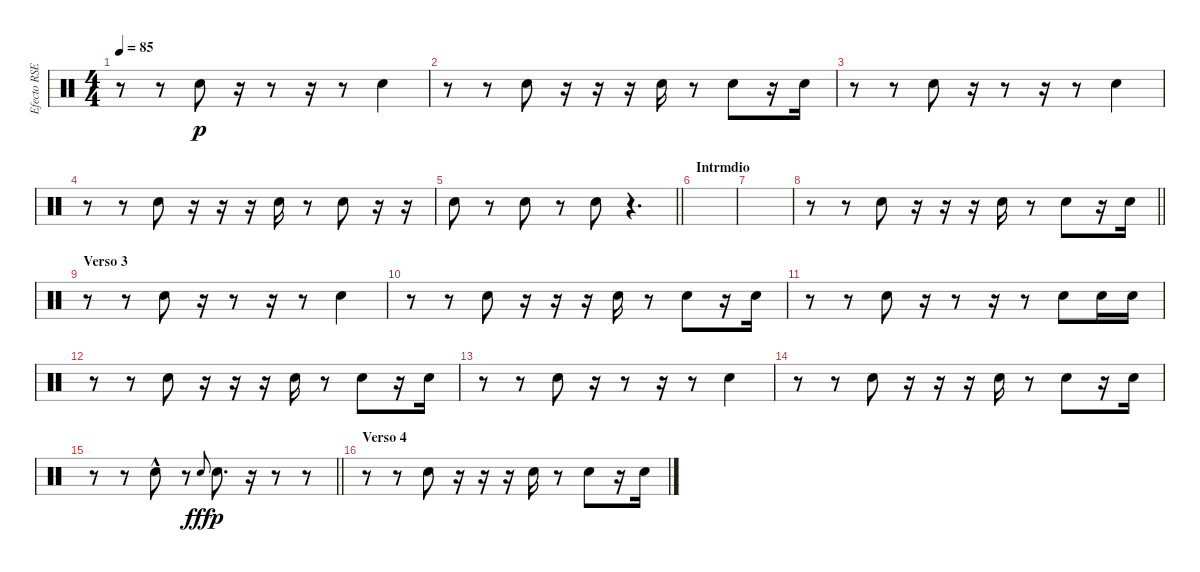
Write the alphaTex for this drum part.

\track ("Efecto RSE (GP5)" "Efecto RSE") {instrument percussion}
\staff {score}
\articulation defaults
\ts (4 4)
\tempo 85
\clef neutral
\ks c
r.8{dy p} r.8 "Electric Snare (hit)".8 r.16 r.8 r.16 r.8 "Electric Snare (hit)".4 |
r.8 r.8 "Electric Snare (hit)".8 r.16 r.16 r.16 "Electric Snare (hit)".16 r.8 "Electric Snare (hit)".8 r.16 "Electric Snare (hit)".16 |
r.8 r.8 "Electric Snare (hit)".8 r.16 r.8 r.16 r.8 "Electric Snare (hit)".4 |
r.8 r.8 "Electric Snare (hit)".8 r.16 r.16 r.16 "Electric Snare (hit)".16 r.8 "Electric Snare (hit)".8 r.16 r.16 |
\barLineRight lightlight "Electric Snare (hit)".8
r.8 "Electric Snare (hit)".8 r.8 "Electric Snare (hit)".8 r.4{d} |
\section ("" "Intrmdio")
|
|
\barLineRight lightlight
r.8 r.8 "Electric Snare (hit)".8 r.16 r.16 r.16 "Electric Snare (hit)".16 r.8 "Electric Snare (hit)".8 r.16 "Electric Snare (hit)".16 |
\section ("" "Verso 3")
r.8 r.8 "Electric Snare (hit)".8 r.16 r.8 r.16 r.8 "Electric Snare (hit)".4 |
r.8 r.8 "Electric Snare (hit)".8 r.16 r.16 r.16 "Electric Snare (hit)".16 r.8 "Electric Snare (hit)".8 r.16 "Electric Snare (hit)".16 |
r.8 r.8 "Electric Snare (hit)".8 r.16 r.8 r.16 r.8 "Electric Snare (hit)".8 "Electric Snare (hit)".16 "Electric Snare (hit)".16 |
r.8 r.8 "Electric Snare (hit)".8 r.16 r.16 r.16 "Electric Snare (hit)".16 r.8 "Electric Snare (hit)".8 r.16 "Electric Snare (hit)".16 |
r.8 r.8 "Electric Snare (hit)".8 r.16 r.8 r.16 r.8 "Electric Snare (hit)".4 |
r.8 r.8 "Electric Snare (hit)".8 r.16 r.16 r.16 "Electric Snare (hit)".16 r.8 "Electric Snare (hit)".8 r.16 "Electric Snare (hit)".16 |
\barLineRight lightlight
r.8 r.8 "Electric Snare (hit)"{hac}.8 r.8 "Electric Snare (hit)".8{gr onbeat dy fff} "Electric Snare (hit)".8{d dy p} r.16 r.8 r.8 |
\section ("" "Verso 4")
r.8 r.8 "Electric Snare (hit)".8 r.16 r.16 r.16 "Electric Snare (hit)".16 r.8 "Electric Snare (hit)".8 r.16 "Electric Snare (hit)".16
